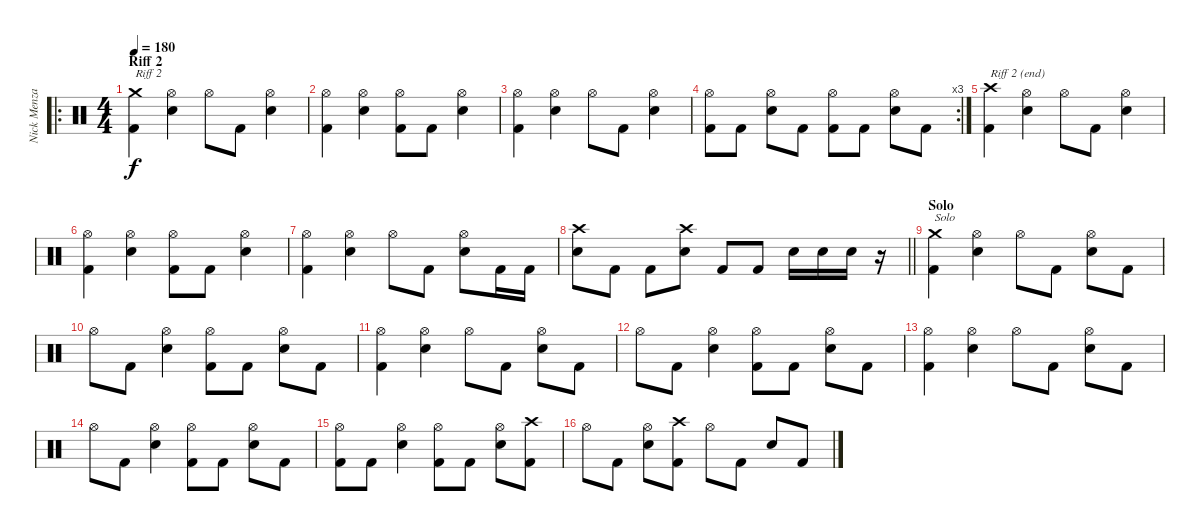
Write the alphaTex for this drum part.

\track ("Nick Menza" "Nick Menza") {instrument percussion}
\staff {score}
\articulation defaults
\ro
\ts (4 4)
\section ("" "Riff 2")
\tempo 180
\clef neutral
\ks c
("Crash medium (hit)" "Kick (hit) 2").4{txt "Riff 2" dy f} ("Hi-Hat (open)" "Snare (hit) 2").4 "Hi-Hat (open)".8 "Kick (hit) 2".8 ("Hi-Hat (open)" "Snare (hit) 2").4 |
("Hi-Hat (open)" "Kick (hit) 2").4 ("Hi-Hat (open)" "Snare (hit) 2").4 ("Hi-Hat (open)" "Kick (hit) 2").8 "Kick (hit) 2".8 ("Hi-Hat (open)" "Snare (hit) 2").4 |
("Hi-Hat (open)" "Kick (hit) 2").4 ("Hi-Hat (open)" "Snare (hit) 2").4 "Hi-Hat (open)".8 "Kick (hit) 2".8 ("Hi-Hat (open)" "Snare (hit) 2").4 |
\rc 3
("Hi-Hat (open)" "Kick (hit) 2").8 "Kick (hit) 2".8 ("Hi-Hat (open)" "Snare (hit) 2").8 "Kick (hit) 2".8 ("Hi-Hat (open)" "Kick (hit) 2").8 "Kick (hit) 2".8 ("Hi-Hat (open)" "Snare (hit) 2").8 "Kick (hit) 2".8 |
("Crash high (hit)" "Kick (hit) 2").4{txt "Riff 2 (end)"} ("Hi-Hat (open)" "Snare (hit) 2").4 "Hi-Hat (open)".8 "Kick (hit) 2".8 ("Hi-Hat (open)" "Snare (hit) 2").4 |
("Hi-Hat (open)" "Kick (hit) 2").4 ("Hi-Hat (open)" "Snare (hit) 2").4 ("Hi-Hat (open)" "Kick (hit) 2").8 "Kick (hit) 2".8 ("Hi-Hat (open)" "Snare (hit) 2").4 |
("Hi-Hat (open)" "Kick (hit) 2").4 ("Hi-Hat (open)" "Snare (hit) 2").4 "Hi-Hat (open)".8 "Kick (hit) 2".8 ("Hi-Hat (open)" "Snare (hit) 2").8 "Kick (hit) 2".16 "Kick (hit) 2".16 |
\barLineRight lightlight
("Crash high (hit)" "Snare (hit) 2").8 "Kick (hit) 2".8 "Kick (hit) 2".8 ("Crash high (hit)" "Snare (hit) 2").8 "Kick (hit) 2".8 "Kick (hit) 2".8 "Snare (hit) 2".16 "Snare (hit) 2".16 "Snare (hit) 2".16 r.16 |
\section ("" "Solo")
("Crash medium (hit)" "Kick (hit) 2").4{txt "Solo"} ("Hi-Hat (open)" "Snare (hit) 2").4 "Hi-Hat (open)".8 "Kick (hit) 2".8 ("Hi-Hat (open)" "Snare (hit) 2").8 "Kick (hit) 2".8 |
"Hi-Hat (open)".8 "Kick (hit) 2".8 ("Hi-Hat (open)" "Snare (hit) 2").4 ("Hi-Hat (open)" "Kick (hit) 2").8 "Kick (hit) 2".8 ("Hi-Hat (open)" "Snare (hit) 2").8 "Kick (hit) 2".8 |
("Hi-Hat (open)" "Kick (hit) 2").4 ("Hi-Hat (open)" "Snare (hit) 2").4 "Hi-Hat (open)".8 "Kick (hit) 2".8 ("Hi-Hat (open)" "Snare (hit) 2").8 "Kick (hit) 2".8 |
"Hi-Hat (open)".8 "Kick (hit) 2".8 ("Hi-Hat (open)" "Snare (hit) 2").4 ("Hi-Hat (open)" "Kick (hit) 2").8 "Kick (hit) 2".8 ("Hi-Hat (open)" "Snare (hit) 2").8 "Kick (hit) 2".8 |
("Hi-Hat (open)" "Kick (hit) 2").4 ("Hi-Hat (open)" "Snare (hit) 2").4 "Hi-Hat (open)".8 "Kick (hit) 2".8 ("Hi-Hat (open)" "Snare (hit) 2").8 "Kick (hit) 2".8 |
"Hi-Hat (open)".8 "Kick (hit) 2".8 ("Hi-Hat (open)" "Snare (hit) 2").4 ("Hi-Hat (open)" "Kick (hit) 2").8 "Kick (hit) 2".8 ("Hi-Hat (open)" "Snare (hit) 2").8 "Kick (hit) 2".8 |
("Hi-Hat (open)" "Kick (hit) 2").8 "Kick (hit) 2".8 ("Hi-Hat (open)" "Snare (hit) 2").4 ("Hi-Hat (open)" "Kick (hit) 2").8 "Kick (hit) 2".8 ("Hi-Hat (open)" "Snare (hit) 2").8 ("Crash high (hit)" "Kick (hit) 2").8 |
"Hi-Hat (open)".8 "Kick (hit) 2".8 ("Hi-Hat (open)" "Snare (hit) 2").8 ("Crash high (hit)" "Kick (hit) 2").8 "Hi-Hat (open)".8 "Kick (hit) 2".8 "Snare (hit) 2".8 "Kick (hit) 2".8
